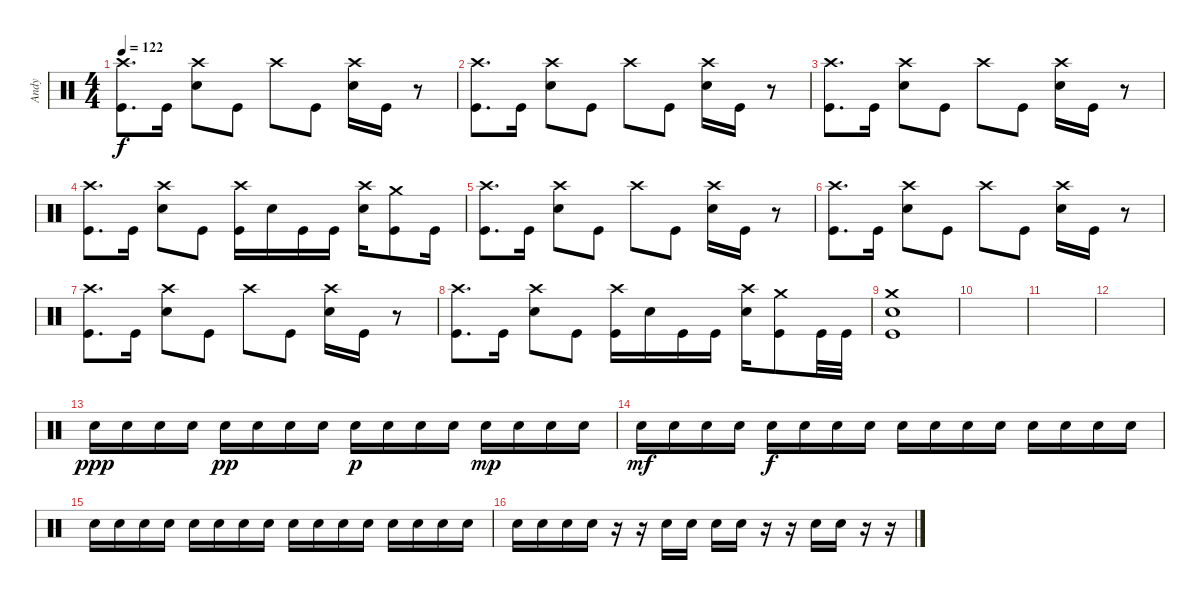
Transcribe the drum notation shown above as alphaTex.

\track ("Andy" "Andy") {instrument percussion}
\staff {score}
\articulation defaults
\ts (4 4)
\tempo 122
\clef neutral
\ks c
("Kick (hit)" "Crash high (hit)").8{d dy f} "Kick (hit)".16 ("Snare (hit) 2" "Crash high (hit)").8 "Kick (hit)".8 "Crash high (hit)".8 "Kick (hit)".8 ("Snare (hit) 2" "Crash high (hit)").16 "Kick (hit)".16 r.8 |
("Kick (hit)" "Crash high (hit)").8{d} "Kick (hit)".16 ("Snare (hit) 2" "Crash high (hit)").8 "Kick (hit)".8 "Crash high (hit)".8 "Kick (hit)".8 ("Snare (hit) 2" "Crash high (hit)").16 "Kick (hit)".16 r.8 |
("Kick (hit)" "Crash high (hit)").8{d} "Kick (hit)".16 ("Snare (hit) 2" "Crash high (hit)").8 "Kick (hit)".8 "Crash high (hit)".8 "Kick (hit)".8 ("Snare (hit) 2" "Crash high (hit)").16 "Kick (hit)".16 r.8 |
("Kick (hit)" "Crash high (hit)").8{d} "Kick (hit)".16 ("Snare (hit) 2" "Crash high (hit)").8 "Kick (hit)".8 ("Kick (hit)" "Crash high (hit)").16 "Snare (hit) 2".16 "Kick (hit)".16 "Kick (hit)".16 ("Snare (hit) 2" "Crash high (hit)").16 ("Kick (hit)" "Crash medium (hit)").8 "Kick (hit)".16 |
("Kick (hit)" "Crash high (hit)").8{d} "Kick (hit)".16 ("Snare (hit) 2" "Crash high (hit)").8 "Kick (hit)".8 "Crash high (hit)".8 "Kick (hit)".8 ("Snare (hit) 2" "Crash high (hit)").16 "Kick (hit)".16 r.8 |
("Kick (hit)" "Crash high (hit)").8{d} "Kick (hit)".16 ("Snare (hit) 2" "Crash high (hit)").8 "Kick (hit)".8 "Crash high (hit)".8 "Kick (hit)".8 ("Snare (hit) 2" "Crash high (hit)").16 "Kick (hit)".16 r.8 |
("Kick (hit)" "Crash high (hit)").8{d} "Kick (hit)".16 ("Snare (hit) 2" "Crash high (hit)").8 "Kick (hit)".8 "Crash high (hit)".8 "Kick (hit)".8 ("Snare (hit) 2" "Crash high (hit)").16 "Kick (hit)".16 r.8 |
("Kick (hit)" "Crash high (hit)").8{d} "Kick (hit)".16 ("Snare (hit) 2" "Crash high (hit)").8 "Kick (hit)".8 ("Kick (hit)" "Crash high (hit)").16 "Snare (hit) 2".16 "Kick (hit)".16 "Kick (hit)".16 ("Snare (hit) 2" "Crash high (hit)").16 ("Kick (hit)" "Crash medium (hit)").8 "Kick (hit)".32 "Kick (hit)".32 |
("Crash medium (hit)" "Snare (hit) 2" "Kick (hit)").1 |
|
|
|
"Snare (hit) 2".16{dy ppp} "Snare (hit) 2".16 "Snare (hit) 2".16 "Snare (hit) 2".16 "Snare (hit) 2".16{dy pp} "Snare (hit) 2".16 "Snare (hit) 2".16 "Snare (hit) 2".16 "Snare (hit) 2".16{dy p} "Snare (hit) 2".16 "Snare (hit) 2".16 "Snare (hit) 2".16 "Snare (hit) 2".16{dy mp} "Snare (hit) 2".16 "Snare (hit) 2".16 "Snare (hit) 2".16 |
"Snare (hit) 2".16{dy mf} "Snare (hit) 2".16 "Snare (hit) 2".16 "Snare (hit) 2".16 "Snare (hit) 2".16{dy f} "Snare (hit) 2".16 "Snare (hit) 2".16 "Snare (hit) 2".16 "Snare (hit) 2".16 "Snare (hit) 2".16 "Snare (hit) 2".16 "Snare (hit) 2".16 "Snare (hit) 2".16 "Snare (hit) 2".16 "Snare (hit) 2".16 "Snare (hit) 2".16 |
"Snare (hit) 2".16 "Snare (hit) 2".16 "Snare (hit) 2".16 "Snare (hit) 2".16 "Snare (hit) 2".16 "Snare (hit) 2".16 "Snare (hit) 2".16 "Snare (hit) 2".16 "Snare (hit) 2".16 "Snare (hit) 2".16 "Snare (hit) 2".16 "Snare (hit) 2".16 "Snare (hit) 2".16 "Snare (hit) 2".16 "Snare (hit) 2".16 "Snare (hit) 2".16 |
"Snare (hit) 2".16 "Snare (hit) 2".16 "Snare (hit) 2".16 "Snare (hit) 2".16 r.16 r.16 "Snare (hit) 2".16 "Snare (hit) 2".16 "Snare (hit) 2".16 "Snare (hit) 2".16 r.16 r.16 "Snare (hit) 2".16 "Snare (hit) 2".16 r.16 r.16
